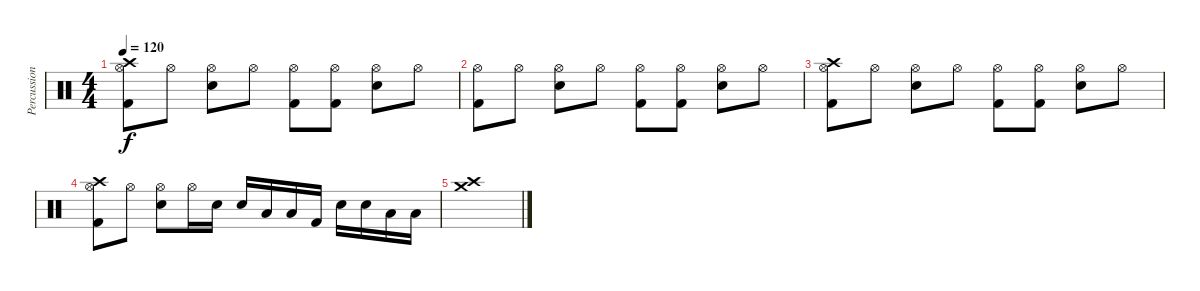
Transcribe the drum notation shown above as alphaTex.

\track ("Percussion" "Percussion") {instrument percussion}
\staff {score}
\articulation defaults
\ts (4 4)
\tempo 120
\clef neutral
\ks c
("Hi-Hat (open)" "Kick (hit) 2" "Crash high (hit)").8{dy f} "Hi-Hat (open)".8 ("Hi-Hat (open)" "Snare (hit) 2").8 "Hi-Hat (open)".8 ("Hi-Hat (open)" "Kick (hit) 2").8 ("Hi-Hat (open)" "Kick (hit) 2").8 ("Hi-Hat (open)" "Snare (hit) 2").8 "Hi-Hat (open)".8 |
("Hi-Hat (open)" "Kick (hit) 2").8 "Hi-Hat (open)".8 ("Hi-Hat (open)" "Snare (hit) 2").8 "Hi-Hat (open)".8 ("Hi-Hat (open)" "Kick (hit) 2").8 ("Hi-Hat (open)" "Kick (hit) 2").8 ("Hi-Hat (open)" "Snare (hit) 2").8 "Hi-Hat (open)".8 |
("Hi-Hat (open)" "Kick (hit) 2" "Crash high (hit)").8 "Hi-Hat (open)".8 ("Hi-Hat (open)" "Snare (hit) 2").8 "Hi-Hat (open)".8 ("Hi-Hat (open)" "Kick (hit) 2").8 ("Hi-Hat (open)" "Kick (hit) 2").8 ("Hi-Hat (open)" "Snare (hit) 2").8 "Hi-Hat (open)".8 |
("Hi-Hat (open)" "Crash high (hit)" "Kick (hit) 2").8 "Hi-Hat (open)".8 ("Hi-Hat (open)" "Snare (hit) 2").8 "Hi-Hat (open)".16 "Snare (hit) 2".16 "Snare (hit) 2".16 "Low Floor Tom (hit)".16 "Low Floor Tom (hit)".16 "Kick (hit) 2".16 "Snare (hit) 2".16 "Snare (hit) 2".16 "Low Floor Tom (hit)".16 "Low Floor Tom (hit)".16 |
("Crash high (hit)" "Crash medium (hit)").1
